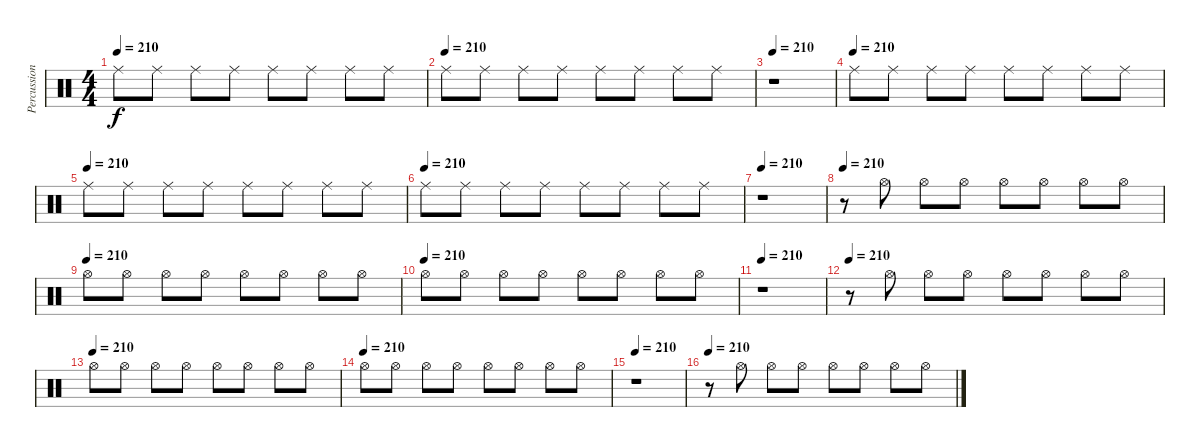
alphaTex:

\track ("Percussion" "Percussion") {instrument percussion}
\staff {score}
\articulation defaults
\ts (4 4)
\tempo 210
\clef neutral
\ks c "Ride (middle)".8{dy f} "Ride (middle)".8 "Ride (middle)".8 "Ride (middle)".8 "Ride (middle)".8 "Ride (middle)".8 "Ride (middle)".8 "Ride (middle)".8
|
\tempo (210)
"Ride (middle)".8 "Ride (middle)".8 "Ride (middle)".8 "Ride (middle)".8 "Ride (middle)".8 "Ride (middle)".8 "Ride (middle)".8 "Ride (middle)".8 |
\tempo 210
r.1 |
\tempo (210)
"Ride (middle)".8 "Ride (middle)".8 "Ride (middle)".8 "Ride (middle)".8 "Ride (middle)".8 "Ride (middle)".8 "Ride (middle)".8 "Ride (middle)".8 |
\tempo (210)
"Ride (middle)".8 "Ride (middle)".8 "Ride (middle)".8 "Ride (middle)".8 "Ride (middle)".8 "Ride (middle)".8 "Ride (middle)".8 "Ride (middle)".8 |
\tempo (210)
"Ride (middle)".8 "Ride (middle)".8 "Ride (middle)".8 "Ride (middle)".8 "Ride (middle)".8 "Ride (middle)".8 "Ride (middle)".8 "Ride (middle)".8 |
\tempo 210
r.1 |
\tempo 210
r.8 "Hi-Hat (open)".8 "Hi-Hat (open)".8 "Hi-Hat (open)".8 "Hi-Hat (open)".8 "Hi-Hat (open)".8 "Hi-Hat (open)".8 "Hi-Hat (open)".8 |
\tempo (210)
"Hi-Hat (open)".8 "Hi-Hat (open)".8 "Hi-Hat (open)".8 "Hi-Hat (open)".8 "Hi-Hat (open)".8 "Hi-Hat (open)".8 "Hi-Hat (open)".8 "Hi-Hat (open)".8 |
\tempo (210)
"Hi-Hat (open)".8 "Hi-Hat (open)".8 "Hi-Hat (open)".8 "Hi-Hat (open)".8 "Hi-Hat (open)".8 "Hi-Hat (open)".8 "Hi-Hat (open)".8 "Hi-Hat (open)".8 |
\tempo 210
r.1 |
\tempo 210
r.8 "Hi-Hat (open)".8 "Hi-Hat (open)".8 "Hi-Hat (open)".8 "Hi-Hat (open)".8 "Hi-Hat (open)".8 "Hi-Hat (open)".8 "Hi-Hat (open)".8 |
\tempo (210)
"Hi-Hat (open)".8 "Hi-Hat (open)".8 "Hi-Hat (open)".8 "Hi-Hat (open)".8 "Hi-Hat (open)".8 "Hi-Hat (open)".8 "Hi-Hat (open)".8 "Hi-Hat (open)".8 |
\tempo (210)
"Hi-Hat (open)".8 "Hi-Hat (open)".8 "Hi-Hat (open)".8 "Hi-Hat (open)".8 "Hi-Hat (open)".8 "Hi-Hat (open)".8 "Hi-Hat (open)".8 "Hi-Hat (open)".8 |
\tempo 210
r.1 |
\tempo 210
r.8 "Hi-Hat (open)".8 "Hi-Hat (open)".8 "Hi-Hat (open)".8 "Hi-Hat (open)".8 "Hi-Hat (open)".8 "Hi-Hat (open)".8 "Hi-Hat (open)".8
